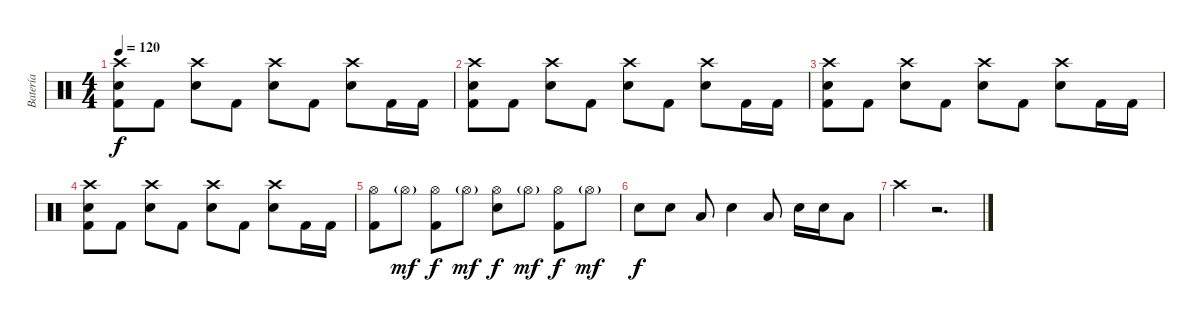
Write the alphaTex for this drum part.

\track ("Batería" "Batería") {instrument percussion}
\staff {score}
\articulation defaults
\ts (4 4)
\tempo 120
\clef neutral
\ks c
("Crash high (hit)" "Electric Snare (hit)" "Kick (hit) 2").8{dy f} "Kick (hit) 2".8 ("Crash high (hit)" "Electric Snare (hit)").8 "Kick (hit) 2".8 ("Crash high (hit)" "Electric Snare (hit)").8 "Kick (hit) 2".8 ("Crash high (hit)" "Electric Snare (hit)").8 "Kick (hit) 2".16 "Kick (hit) 2".16 |
("Crash high (hit)" "Electric Snare (hit)" "Kick (hit) 2").8 "Kick (hit) 2".8 ("Crash high (hit)" "Electric Snare (hit)").8 "Kick (hit) 2".8 ("Crash high (hit)" "Electric Snare (hit)").8 "Kick (hit) 2".8 ("Crash high (hit)" "Electric Snare (hit)").8 "Kick (hit) 2".16 "Kick (hit) 2".16 |
("Crash high (hit)" "Electric Snare (hit)" "Kick (hit) 2").8 "Kick (hit) 2".8 ("Crash high (hit)" "Electric Snare (hit)").8 "Kick (hit) 2".8 ("Crash high (hit)" "Electric Snare (hit)").8 "Kick (hit) 2".8 ("Crash high (hit)" "Electric Snare (hit)").8 "Kick (hit) 2".16 "Kick (hit) 2".16 |
("Crash high (hit)" "Electric Snare (hit)" "Kick (hit) 2").8 "Kick (hit) 2".8 ("Crash high (hit)" "Electric Snare (hit)").8 "Kick (hit) 2".8 ("Crash high (hit)" "Electric Snare (hit)").8 "Kick (hit) 2".8 ("Crash high (hit)" "Electric Snare (hit)").8 "Kick (hit) 2".16 "Kick (hit) 2".16 |
("Hi-Hat (open)" "Kick (hit) 2").8 "Hi-Hat (open)"{g}.8{dy mf} ("Hi-Hat (open)" "Kick (hit) 2").8{dy f} "Hi-Hat (open)"{g}.8{dy mf} ("Hi-Hat (open)" "Electric Snare (hit)").8{dy f} "Hi-Hat (open)"{g}.8{dy mf} ("Hi-Hat (open)" "Kick (hit) 2").8{dy f} "Hi-Hat (open)"{g}.8{dy mf} |
"Snare (hit) 2".8{dy f} "Snare (hit) 2".8 "Low Tom (hit)".8 "Snare (hit) 2".4 "Low Tom (hit)".8 "Snare (hit) 2".16 "Snare (hit) 2".16 "Low Tom (hit)".8 |
"Crash high (hit)".4 r.2{d}
